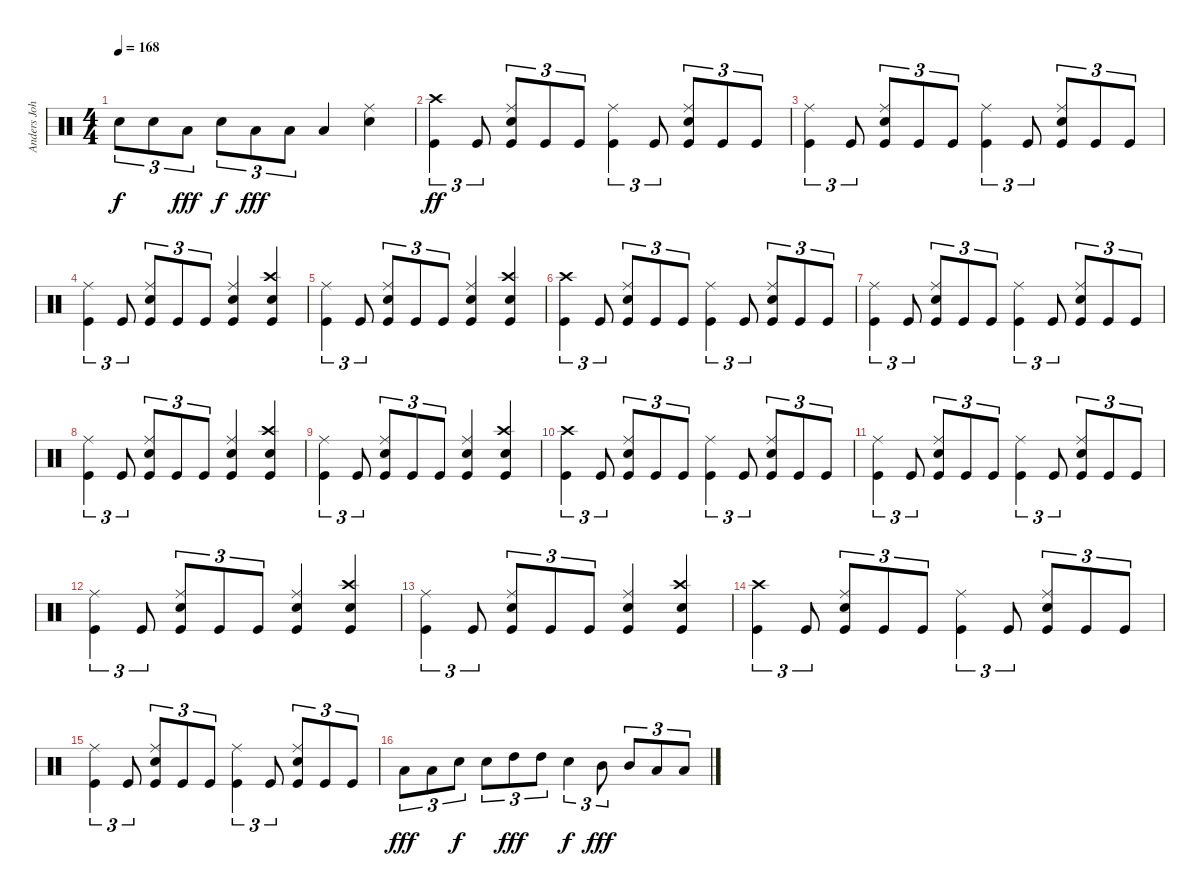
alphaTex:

\track ("Anders Johansson (Drums)" "Anders Joh") {instrument percussion}
\staff {score}
\articulation defaults
\ts (4 4)
\tempo 168
\clef neutral
\ks c "Electric Snare (hit)".8{tu (3 2) dy f} "Electric Snare (hit)".8{tu (3 2)} "Low Tom (hit)".8{tu (3 2) dy fff} "Electric Snare (hit)".8{tu (3 2) dy f} "Low Tom (hit)".8{tu (3 2) dy fff} "Low Tom (hit)".8{tu (3 2)} "Low Tom (hit)".4
("Ride (middle)" "Electric Snare (hit)").4 |
("Crash high (hit)" "Kick (hit)").4{tu (3 2) dy ff} "Kick (hit)".8{tu (3 2)} ("Ride (middle)" "Electric Snare (hit)" "Kick (hit)").8{tu (3 2)} "Kick (hit)".8{tu (3 2)} "Kick (hit)".8{tu (3 2)} ("Ride (middle)" "Kick (hit)").4{tu (3 2)} "Kick (hit)".8{tu (3 2)} ("Ride (middle)" "Electric Snare (hit)" "Kick (hit)").8{tu (3 2)} "Kick (hit)".8{tu (3 2)} "Kick (hit)".8{tu (3 2)} |
("Ride (middle)" "Kick (hit)").4{tu (3 2)} "Kick (hit)".8{tu (3 2)} ("Ride (middle)" "Electric Snare (hit)" "Kick (hit)").8{tu (3 2)} "Kick (hit)".8{tu (3 2)} "Kick (hit)".8{tu (3 2)} ("Ride (middle)" "Kick (hit)").4{tu (3 2)} "Kick (hit)".8{tu (3 2)} ("Ride (middle)" "Electric Snare (hit)" "Kick (hit)").8{tu (3 2)} "Kick (hit)".8{tu (3 2)} "Kick (hit)".8{tu (3 2)} |
("Ride (middle)" "Kick (hit)").4{tu (3 2)} "Kick (hit)".8{tu (3 2)} ("Ride (middle)" "Electric Snare (hit)" "Kick (hit)").8{tu (3 2)} "Kick (hit)".8{tu (3 2)} "Kick (hit)".8{tu (3 2)} ("Ride (middle)" "Electric Snare (hit)" "Kick (hit)").4 ("Crash high (hit)" "Electric Snare (hit)" "Kick (hit)").4 |
("Ride (middle)" "Kick (hit)").4{tu (3 2)} "Kick (hit)".8{tu (3 2)} ("Ride (middle)" "Electric Snare (hit)" "Kick (hit)").8{tu (3 2)} "Kick (hit)".8{tu (3 2)} "Kick (hit)".8{tu (3 2)} ("Ride (middle)" "Electric Snare (hit)" "Kick (hit)").4 ("Crash high (hit)" "Electric Snare (hit)" "Kick (hit)").4 |
("Crash high (hit)" "Kick (hit)").4{tu (3 2)} "Kick (hit)".8{tu (3 2)} ("Ride (middle)" "Electric Snare (hit)" "Kick (hit)").8{tu (3 2)} "Kick (hit)".8{tu (3 2)} "Kick (hit)".8{tu (3 2)} ("Ride (middle)" "Kick (hit)").4{tu (3 2)} "Kick (hit)".8{tu (3 2)} ("Ride (middle)" "Electric Snare (hit)" "Kick (hit)").8{tu (3 2)} "Kick (hit)".8{tu (3 2)} "Kick (hit)".8{tu (3 2)} |
("Ride (middle)" "Kick (hit)").4{tu (3 2)} "Kick (hit)".8{tu (3 2)} ("Ride (middle)" "Electric Snare (hit)" "Kick (hit)").8{tu (3 2)} "Kick (hit)".8{tu (3 2)} "Kick (hit)".8{tu (3 2)} ("Ride (middle)" "Kick (hit)").4{tu (3 2)} "Kick (hit)".8{tu (3 2)} ("Ride (middle)" "Electric Snare (hit)" "Kick (hit)").8{tu (3 2)} "Kick (hit)".8{tu (3 2)} "Kick (hit)".8{tu (3 2)} |
("Ride (middle)" "Kick (hit)").4{tu (3 2)} "Kick (hit)".8{tu (3 2)} ("Ride (middle)" "Electric Snare (hit)" "Kick (hit)").8{tu (3 2)} "Kick (hit)".8{tu (3 2)} "Kick (hit)".8{tu (3 2)} ("Ride (middle)" "Electric Snare (hit)" "Kick (hit)").4 ("Crash high (hit)" "Electric Snare (hit)" "Kick (hit)").4 |
("Ride (middle)" "Kick (hit)").4{tu (3 2)} "Kick (hit)".8{tu (3 2)} ("Ride (middle)" "Electric Snare (hit)" "Kick (hit)").8{tu (3 2)} "Kick (hit)".8{tu (3 2)} "Kick (hit)".8{tu (3 2)} ("Ride (middle)" "Electric Snare (hit)" "Kick (hit)").4 ("Crash high (hit)" "Electric Snare (hit)" "Kick (hit)").4 |
("Crash high (hit)" "Kick (hit)").4{tu (3 2)} "Kick (hit)".8{tu (3 2)} ("Ride (middle)" "Electric Snare (hit)" "Kick (hit)").8{tu (3 2)} "Kick (hit)".8{tu (3 2)} "Kick (hit)".8{tu (3 2)} ("Ride (middle)" "Kick (hit)").4{tu (3 2)} "Kick (hit)".8{tu (3 2)} ("Ride (middle)" "Electric Snare (hit)" "Kick (hit)").8{tu (3 2)} "Kick (hit)".8{tu (3 2)} "Kick (hit)".8{tu (3 2)} |
("Ride (middle)" "Kick (hit)").4{tu (3 2)} "Kick (hit)".8{tu (3 2)} ("Ride (middle)" "Electric Snare (hit)" "Kick (hit)").8{tu (3 2)} "Kick (hit)".8{tu (3 2)} "Kick (hit)".8{tu (3 2)} ("Ride (middle)" "Kick (hit)").4{tu (3 2)} "Kick (hit)".8{tu (3 2)} ("Ride (middle)" "Electric Snare (hit)" "Kick (hit)").8{tu (3 2)} "Kick (hit)".8{tu (3 2)} "Kick (hit)".8{tu (3 2)} |
("Ride (middle)" "Kick (hit)").4{tu (3 2)} "Kick (hit)".8{tu (3 2)} ("Ride (middle)" "Electric Snare (hit)" "Kick (hit)").8{tu (3 2)} "Kick (hit)".8{tu (3 2)} "Kick (hit)".8{tu (3 2)} ("Ride (middle)" "Electric Snare (hit)" "Kick (hit)").4 ("Crash high (hit)" "Electric Snare (hit)" "Kick (hit)").4 |
("Ride (middle)" "Kick (hit)").4{tu (3 2)} "Kick (hit)".8{tu (3 2)} ("Ride (middle)" "Electric Snare (hit)" "Kick (hit)").8{tu (3 2)} "Kick (hit)".8{tu (3 2)} "Kick (hit)".8{tu (3 2)} ("Ride (middle)" "Electric Snare (hit)" "Kick (hit)").4 ("Crash high (hit)" "Electric Snare (hit)" "Kick (hit)").4 |
("Crash high (hit)" "Kick (hit)").4{tu (3 2)} "Kick (hit)".8{tu (3 2)} ("Ride (middle)" "Electric Snare (hit)" "Kick (hit)").8{tu (3 2)} "Kick (hit)".8{tu (3 2)} "Kick (hit)".8{tu (3 2)} ("Ride (middle)" "Kick (hit)").4{tu (3 2)} "Kick (hit)".8{tu (3 2)} ("Ride (middle)" "Electric Snare (hit)" "Kick (hit)").8{tu (3 2)} "Kick (hit)".8{tu (3 2)} "Kick (hit)".8{tu (3 2)} |
("Ride (middle)" "Kick (hit)").4{tu (3 2)} "Kick (hit)".8{tu (3 2)} ("Ride (middle)" "Electric Snare (hit)" "Kick (hit)").8{tu (3 2)} "Kick (hit)".8{tu (3 2)} "Kick (hit)".8{tu (3 2)} ("Ride (middle)" "Kick (hit)").4{tu (3 2)} "Kick (hit)".8{tu (3 2)} ("Ride (middle)" "Electric Snare (hit)" "Kick (hit)").8{tu (3 2)} "Kick (hit)".8{tu (3 2)} "Kick (hit)".8{tu (3 2)} |
"Low Tom (hit)".8{tu (3 2) dy fff} "Low Tom (hit)".8{tu (3 2)} "Electric Snare (hit)".8{tu (3 2) dy f} "Electric Snare (hit)".8{tu (3 2)} "High Tom (hit)".8{tu (3 2) dy fff} "High Tom (hit)".8{tu (3 2)} "Electric Snare (hit)".4{tu (3 2) dy f} "Mid Tom (hit)".8{tu (3 2) dy fff} "Mid Tom (hit)".8{tu (3 2)} "Low Tom (hit)".8{tu (3 2)} "Low Tom (hit)".8{tu (3 2)}
